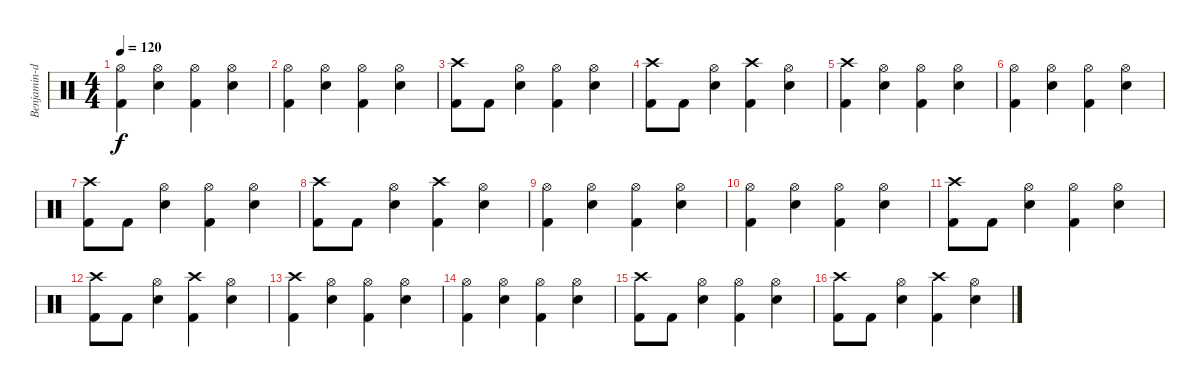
\track ("Benjamin-drums" "Benjamin-d") {instrument percussion}
\staff {score}
\articulation defaults
\ts (4 4)
\tempo 120
\clef neutral
\ks c
("Hi-Hat (open)" "Kick (hit) 2").4{dy f} ("Hi-Hat (open)" "Snare (hit) 2").4 ("Hi-Hat (open)" "Kick (hit) 2").4 ("Hi-Hat (open)" "Snare (hit) 2").4 |
("Hi-Hat (open)" "Kick (hit) 2").4 ("Hi-Hat (open)" "Snare (hit) 2").4 ("Hi-Hat (open)" "Kick (hit) 2").4 ("Hi-Hat (open)" "Snare (hit) 2").4 |
("Crash high (hit)" "Kick (hit) 2").8 "Kick (hit) 2".8 ("Hi-Hat (open)" "Snare (hit) 2").4 ("Hi-Hat (open)" "Kick (hit) 2").4 ("Hi-Hat (open)" "Snare (hit) 2").4 |
("Crash high (hit)" "Kick (hit) 2").8 "Kick (hit) 2".8 ("Hi-Hat (open)" "Snare (hit) 2").4 ("Crash high (hit)" "Kick (hit) 2").4 ("Hi-Hat (open)" "Snare (hit) 2").4 |
("Crash high (hit)" "Kick (hit) 2").4 ("Hi-Hat (open)" "Snare (hit) 2").4 ("Hi-Hat (open)" "Kick (hit) 2").4 ("Hi-Hat (open)" "Snare (hit) 2").4 |
("Hi-Hat (open)" "Kick (hit) 2").4 ("Hi-Hat (open)" "Snare (hit) 2").4 ("Hi-Hat (open)" "Kick (hit) 2").4 ("Hi-Hat (open)" "Snare (hit) 2").4 |
("Crash high (hit)" "Kick (hit) 2").8 "Kick (hit) 2".8 ("Hi-Hat (open)" "Snare (hit) 2").4 ("Hi-Hat (open)" "Kick (hit) 2").4 ("Hi-Hat (open)" "Snare (hit) 2").4 |
("Crash high (hit)" "Kick (hit) 2").8 "Kick (hit) 2".8 ("Hi-Hat (open)" "Snare (hit) 2").4 ("Crash high (hit)" "Kick (hit) 2").4 ("Hi-Hat (open)" "Snare (hit) 2").4 |
("Hi-Hat (open)" "Kick (hit) 2").4 ("Hi-Hat (open)" "Snare (hit) 2").4 ("Hi-Hat (open)" "Kick (hit) 2").4 ("Hi-Hat (open)" "Snare (hit) 2").4 |
("Hi-Hat (open)" "Kick (hit) 2").4 ("Hi-Hat (open)" "Snare (hit) 2").4 ("Hi-Hat (open)" "Kick (hit) 2").4 ("Hi-Hat (open)" "Snare (hit) 2").4 |
("Crash high (hit)" "Kick (hit) 2").8 "Kick (hit) 2".8 ("Hi-Hat (open)" "Snare (hit) 2").4 ("Hi-Hat (open)" "Kick (hit) 2").4 ("Hi-Hat (open)" "Snare (hit) 2").4 |
("Crash high (hit)" "Kick (hit) 2").8 "Kick (hit) 2".8 ("Hi-Hat (open)" "Snare (hit) 2").4 ("Crash high (hit)" "Kick (hit) 2").4 ("Hi-Hat (open)" "Snare (hit) 2").4 |
("Crash high (hit)" "Kick (hit) 2").4 ("Hi-Hat (open)" "Snare (hit) 2").4 ("Hi-Hat (open)" "Kick (hit) 2").4 ("Hi-Hat (open)" "Snare (hit) 2").4 |
("Hi-Hat (open)" "Kick (hit) 2").4 ("Hi-Hat (open)" "Snare (hit) 2").4 ("Hi-Hat (open)" "Kick (hit) 2").4 ("Hi-Hat (open)" "Snare (hit) 2").4 |
("Crash high (hit)" "Kick (hit) 2").8 "Kick (hit) 2".8 ("Hi-Hat (open)" "Snare (hit) 2").4 ("Hi-Hat (open)" "Kick (hit) 2").4 ("Hi-Hat (open)" "Snare (hit) 2").4 |
("Crash high (hit)" "Kick (hit) 2").8 "Kick (hit) 2".8 ("Hi-Hat (open)" "Snare (hit) 2").4 ("Crash high (hit)" "Kick (hit) 2").4 ("Hi-Hat (open)" "Snare (hit) 2").4
